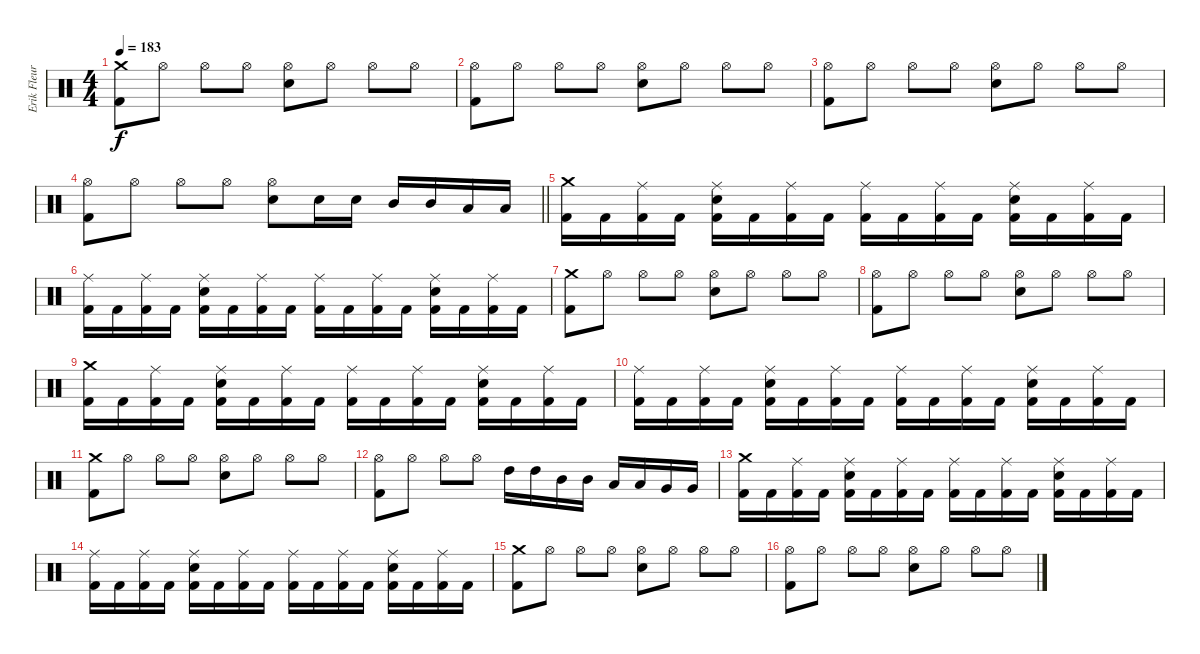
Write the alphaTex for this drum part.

\track ("Erik Fleuren" "Erik Fleur") {instrument percussion}
\staff {score}
\articulation defaults
\ts (4 4)
\tempo 183
\clef neutral
\ks c
("Crash medium (hit)" "Kick (hit) 2").8{dy f} "Hi-Hat (open)".8 "Hi-Hat (open)".8 "Hi-Hat (open)".8 ("Hi-Hat (open)" "Electric Snare (hit)").8 "Hi-Hat (open)".8 "Hi-Hat (open)".8 "Hi-Hat (open)".8 |
("Hi-Hat (open)" "Kick (hit) 2").8 "Hi-Hat (open)".8 "Hi-Hat (open)".8 "Hi-Hat (open)".8 ("Hi-Hat (open)" "Electric Snare (hit)").8 "Hi-Hat (open)".8 "Hi-Hat (open)".8 "Hi-Hat (open)".8 |
("Hi-Hat (open)" "Kick (hit) 2").8 "Hi-Hat (open)".8 "Hi-Hat (open)".8 "Hi-Hat (open)".8 ("Hi-Hat (open)" "Electric Snare (hit)").8 "Hi-Hat (open)".8 "Hi-Hat (open)".8 "Hi-Hat (open)".8 |
\barLineRight lightlight
("Hi-Hat (open)" "Kick (hit) 2").8 "Hi-Hat (open)".8 "Hi-Hat (open)".8 "Hi-Hat (open)".8 ("Hi-Hat (open)" "Electric Snare (hit)").8 "Electric Snare (hit)".16 "Electric Snare (hit)".16 "Mid Tom (hit)".16 "Mid Tom (hit)".16 "Low Tom (hit)".16 "Low Tom (hit)".16 |
("Crash medium (hit)" "Kick (hit) 2").16 "Kick (hit) 2".16 ("Ride (middle)" "Kick (hit) 2").16 "Kick (hit) 2".16 ("Ride (middle)" "Electric Snare (hit)" "Kick (hit) 2").16 "Kick (hit) 2".16 ("Ride (middle)" "Kick (hit) 2").16 "Kick (hit) 2".16 ("Ride (middle)" "Kick (hit) 2").16 "Kick (hit) 2".16 ("Ride (middle)" "Kick (hit) 2").16 "Kick (hit) 2".16 ("Ride (middle)" "Electric Snare (hit)" "Kick (hit) 2").16 "Kick (hit) 2".16 ("Ride (middle)" "Kick (hit) 2").16 "Kick (hit) 2".16 |
("Ride (middle)" "Kick (hit) 2").16 "Kick (hit) 2".16 ("Ride (middle)" "Kick (hit) 2").16 "Kick (hit) 2".16 ("Ride (middle)" "Electric Snare (hit)" "Kick (hit) 2").16 "Kick (hit) 2".16 ("Ride (middle)" "Kick (hit) 2").16 "Kick (hit) 2".16 ("Ride (middle)" "Kick (hit) 2").16 "Kick (hit) 2".16 ("Ride (middle)" "Kick (hit) 2").16 "Kick (hit) 2".16 ("Ride (middle)" "Electric Snare (hit)" "Kick (hit) 2").16 "Kick (hit) 2".16 ("Ride (middle)" "Kick (hit) 2").16 "Kick (hit) 2".16 |
("Crash medium (hit)" "Kick (hit) 2").8 "Hi-Hat (open)".8 "Hi-Hat (open)".8 "Hi-Hat (open)".8 ("Hi-Hat (open)" "Electric Snare (hit)").8 "Hi-Hat (open)".8 "Hi-Hat (open)".8 "Hi-Hat (open)".8 |
("Hi-Hat (open)" "Kick (hit) 2").8 "Hi-Hat (open)".8 "Hi-Hat (open)".8 "Hi-Hat (open)".8 ("Hi-Hat (open)" "Electric Snare (hit)").8 "Hi-Hat (open)".8 "Hi-Hat (open)".8 "Hi-Hat (open)".8 |
("Crash medium (hit)" "Kick (hit) 2").16 "Kick (hit) 2".16 ("Ride (middle)" "Kick (hit) 2").16 "Kick (hit) 2".16 ("Ride (middle)" "Electric Snare (hit)" "Kick (hit) 2").16 "Kick (hit) 2".16 ("Ride (middle)" "Kick (hit) 2").16 "Kick (hit) 2".16 ("Ride (middle)" "Kick (hit) 2").16 "Kick (hit) 2".16 ("Ride (middle)" "Kick (hit) 2").16 "Kick (hit) 2".16 ("Ride (middle)" "Electric Snare (hit)" "Kick (hit) 2").16 "Kick (hit) 2".16 ("Ride (middle)" "Kick (hit) 2").16 "Kick (hit) 2".16 |
("Ride (middle)" "Kick (hit) 2").16 "Kick (hit) 2".16 ("Ride (middle)" "Kick (hit) 2").16 "Kick (hit) 2".16 ("Ride (middle)" "Electric Snare (hit)" "Kick (hit) 2").16 "Kick (hit) 2".16 ("Ride (middle)" "Kick (hit) 2").16 "Kick (hit) 2".16 ("Ride (middle)" "Kick (hit) 2").16 "Kick (hit) 2".16 ("Ride (middle)" "Kick (hit) 2").16 "Kick (hit) 2".16 ("Ride (middle)" "Electric Snare (hit)" "Kick (hit) 2").16 "Kick (hit) 2".16 ("Ride (middle)" "Kick (hit) 2").16 "Kick (hit) 2".16 |
("Crash medium (hit)" "Kick (hit) 2").8 "Hi-Hat (open)".8 "Hi-Hat (open)".8 "Hi-Hat (open)".8 ("Hi-Hat (open)" "Electric Snare (hit)").8 "Hi-Hat (open)".8 "Hi-Hat (open)".8 "Hi-Hat (open)".8 |
("Hi-Hat (open)" "Kick (hit) 2").8 "Hi-Hat (open)".8 "Hi-Hat (open)".8 "Hi-Hat (open)".8 "High Tom (hit)".16 "High Tom (hit)".16 "Mid Tom (hit)".16 "Mid Tom (hit)".16 "Low Tom (hit)".16 "Low Tom (hit)".16 "Very Low Tom (hit)".16 "Very Low Tom (hit)".16 |
("Crash medium (hit)" "Kick (hit) 2").16 "Kick (hit) 2".16 ("Ride (middle)" "Kick (hit) 2").16 "Kick (hit) 2".16 ("Ride (middle)" "Electric Snare (hit)" "Kick (hit) 2").16 "Kick (hit) 2".16 ("Ride (middle)" "Kick (hit) 2").16 "Kick (hit) 2".16 ("Ride (middle)" "Kick (hit) 2").16 "Kick (hit) 2".16 ("Ride (middle)" "Kick (hit) 2").16 "Kick (hit) 2".16 ("Ride (middle)" "Electric Snare (hit)" "Kick (hit) 2").16 "Kick (hit) 2".16 ("Ride (middle)" "Kick (hit) 2").16 "Kick (hit) 2".16 |
("Ride (middle)" "Kick (hit) 2").16 "Kick (hit) 2".16 ("Ride (middle)" "Kick (hit) 2").16 "Kick (hit) 2".16 ("Ride (middle)" "Electric Snare (hit)" "Kick (hit) 2").16 "Kick (hit) 2".16 ("Ride (middle)" "Kick (hit) 2").16 "Kick (hit) 2".16 ("Ride (middle)" "Kick (hit) 2").16 "Kick (hit) 2".16 ("Ride (middle)" "Kick (hit) 2").16 "Kick (hit) 2".16 ("Ride (middle)" "Electric Snare (hit)" "Kick (hit) 2").16 "Kick (hit) 2".16 ("Ride (middle)" "Kick (hit) 2").16 "Kick (hit) 2".16 |
("Crash medium (hit)" "Kick (hit) 2").8 "Hi-Hat (open)".8 "Hi-Hat (open)".8 "Hi-Hat (open)".8 ("Hi-Hat (open)" "Electric Snare (hit)").8 "Hi-Hat (open)".8 "Hi-Hat (open)".8 "Hi-Hat (open)".8 |
("Hi-Hat (open)" "Kick (hit) 2").8 "Hi-Hat (open)".8 "Hi-Hat (open)".8 "Hi-Hat (open)".8 ("Hi-Hat (open)" "Electric Snare (hit)").8 "Hi-Hat (open)".8 "Hi-Hat (open)".8 "Hi-Hat (open)".8
